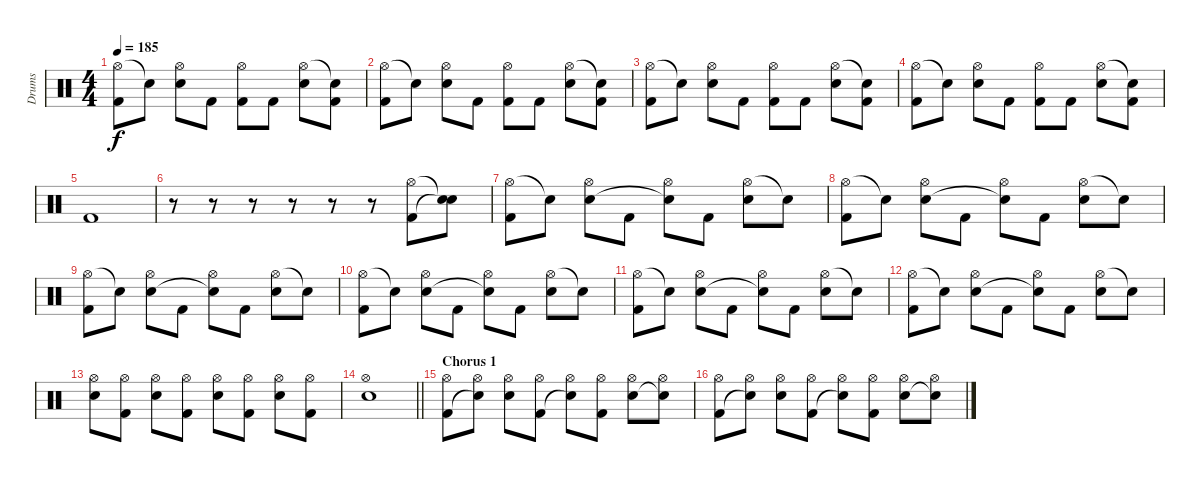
\track ("Drums" "Drums") {instrument percussion}
\staff {score}
\articulation defaults
\ts (4 4)
\tempo 185
\clef neutral
\ks c
("Hi-Hat (open)" "Kick (hit) 2").8{dy f} "Snare (hit)"{t}.8 ("Hi-Hat (open)" "Electric Snare (hit)").8 "Kick (hit) 2".8 ("Hi-Hat (open)" "Kick (hit) 2").8 "Kick (hit) 2".8 ("Hi-Hat (open)" "Electric Snare (hit)").8 ("Snare (hit)"{t} "Kick (hit) 2").8 |
("Hi-Hat (open)" "Kick (hit) 2").8 "Snare (hit)"{t}.8 ("Hi-Hat (open)" "Electric Snare (hit)").8 "Kick (hit) 2".8 ("Hi-Hat (open)" "Kick (hit) 2").8 "Kick (hit) 2".8 ("Hi-Hat (open)" "Electric Snare (hit)").8 ("Snare (hit)"{t} "Kick (hit) 2").8 |
("Hi-Hat (open)" "Kick (hit) 2").8 "Snare (hit)"{t}.8 ("Hi-Hat (open)" "Electric Snare (hit)").8 "Kick (hit) 2".8 ("Hi-Hat (open)" "Kick (hit) 2").8 "Kick (hit) 2".8 ("Hi-Hat (open)" "Electric Snare (hit)").8 ("Snare (hit)"{t} "Kick (hit) 2").8 |
("Hi-Hat (open)" "Kick (hit) 2").8 "Snare (hit)"{t}.8 ("Hi-Hat (open)" "Electric Snare (hit)").8 "Kick (hit) 2".8 ("Hi-Hat (open)" "Kick (hit) 2").8 "Kick (hit) 2".8 ("Hi-Hat (open)" "Electric Snare (hit)").8 ("Snare (hit)"{t} "Kick (hit) 2").8 |
"Kick (hit) 2".1 |
r.8 r.8 r.8 r.8 r.8 r.8 ("Hi-Hat (open)" "Kick (hit) 2").8 ("Snare (hit)"{t} "Snare (hit)"{t}).8 |
("Hi-Hat (open)" "Kick (hit) 2").8 "Snare (hit)"{t}.8 ("Hi-Hat (open)" "Electric Snare (hit)").8 "Kick (hit) 2".8 ("Hi-Hat (open)" "Snare (hit)"{t}).8 "Kick (hit) 2".8 ("Hi-Hat (open)" "Electric Snare (hit)").8 "Snare (hit)"{t}.8 |
("Hi-Hat (open)" "Kick (hit) 2").8 "Snare (hit)"{t}.8 ("Hi-Hat (open)" "Electric Snare (hit)").8 "Kick (hit) 2".8 ("Hi-Hat (open)" "Snare (hit)"{t}).8 "Kick (hit) 2".8 ("Hi-Hat (open)" "Electric Snare (hit)").8 "Snare (hit)"{t}.8 |
("Hi-Hat (open)" "Kick (hit) 2").8 "Snare (hit)"{t}.8 ("Hi-Hat (open)" "Electric Snare (hit)").8 "Kick (hit) 2".8 ("Hi-Hat (open)" "Snare (hit)"{t}).8 "Kick (hit) 2".8 ("Hi-Hat (open)" "Electric Snare (hit)").8 "Snare (hit)"{t}.8 |
("Hi-Hat (open)" "Kick (hit) 2").8 "Snare (hit)"{t}.8 ("Hi-Hat (open)" "Electric Snare (hit)").8 "Kick (hit) 2".8 ("Hi-Hat (open)" "Snare (hit)"{t}).8 "Kick (hit) 2".8 ("Hi-Hat (open)" "Electric Snare (hit)").8 "Snare (hit)"{t}.8 |
("Hi-Hat (open)" "Kick (hit) 2").8 "Snare (hit)"{t}.8 ("Hi-Hat (open)" "Electric Snare (hit)").8 "Kick (hit) 2".8 ("Hi-Hat (open)" "Snare (hit)"{t}).8 "Kick (hit) 2".8 ("Hi-Hat (open)" "Electric Snare (hit)").8 "Snare (hit)"{t}.8 |
("Hi-Hat (open)" "Kick (hit) 2").8 "Snare (hit)"{t}.8 ("Hi-Hat (open)" "Electric Snare (hit)").8 "Kick (hit) 2".8 ("Hi-Hat (open)" "Snare (hit)"{t}).8 "Kick (hit) 2".8 ("Hi-Hat (open)" "Electric Snare (hit)").8 "Snare (hit)"{t}.8 |
("Hi-Hat (open)" "Electric Snare (hit)").8 ("Hi-Hat (open)" "Kick (hit) 2").8 ("Hi-Hat (open)" "Electric Snare (hit)").8 ("Hi-Hat (open)" "Kick (hit) 2").8 ("Hi-Hat (open)" "Electric Snare (hit)").8 ("Hi-Hat (open)" "Kick (hit) 2").8 ("Hi-Hat (open)" "Electric Snare (hit)").8 ("Hi-Hat (open)" "Kick (hit) 2").8 |
\barLineRight lightlight
("Hi-Hat (open)" "Electric Snare (hit)").1 |
\section ("" "Chorus 1")
("Hi-Hat (open)" "Kick (hit) 2").8 ("Hi-Hat (open)" "Snare (hit)"{t}).8 ("Hi-Hat (open)" "Electric Snare (hit)").8 ("Hi-Hat (open)" "Kick (hit) 2").8 ("Hi-Hat (open)" "Snare (hit)"{t}).8 ("Hi-Hat (open)" "Kick (hit) 2").8 ("Hi-Hat (open)" "Electric Snare (hit)").8 ("Hi-Hat (open)" "Snare (hit)"{t}).8 |
("Hi-Hat (open)" "Kick (hit) 2").8 ("Hi-Hat (open)" "Snare (hit)"{t}).8 ("Hi-Hat (open)" "Electric Snare (hit)").8 ("Hi-Hat (open)" "Kick (hit) 2").8 ("Hi-Hat (open)" "Snare (hit)"{t}).8 ("Hi-Hat (open)" "Kick (hit) 2").8 ("Hi-Hat (open)" "Electric Snare (hit)").8 ("Hi-Hat (open)" "Snare (hit)"{t}).8
